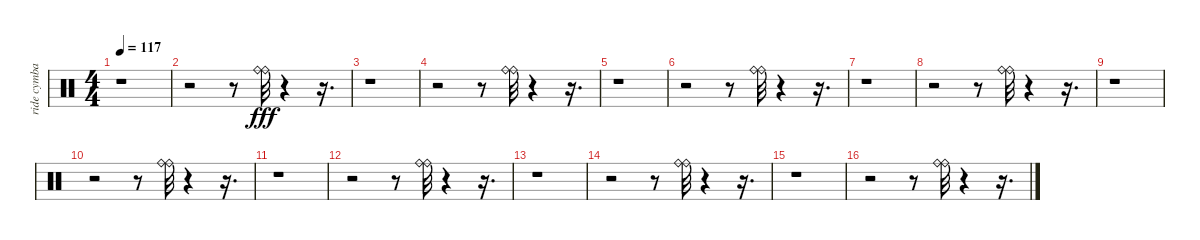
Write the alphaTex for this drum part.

\track ("ride cymbal" "ride cymba") {instrument percussion}
\staff {score}
\articulation defaults
\ts (4 4)
\tempo 117
\clef neutral
\ks c
r.1{dy fff} |
r.2 r.8 ("Ride (bell)" "Ride (bell)").32 r.4 r.16{d} |
r.1 |
r.2 r.8 ("Ride (bell)" "Ride (bell)").32 r.4 r.16{d} |
r.1 |
r.2 r.8 ("Ride (bell)" "Ride (bell)").32 r.4 r.16{d} |
r.1 |
r.2 r.8 ("Ride (bell)" "Ride (bell)").32 r.4 r.16{d} |
r.1 |
r.2 r.8 ("Ride (bell)" "Ride (bell)").32 r.4 r.16{d} |
r.1 |
r.2 r.8 ("Ride (bell)" "Ride (bell)").32 r.4 r.16{d} |
r.1 |
r.2 r.8 ("Ride (bell)" "Ride (bell)").32 r.4 r.16{d} |
r.1 |
r.2 r.8 ("Ride (bell)" "Ride (bell)").32 r.4 r.16{d}
